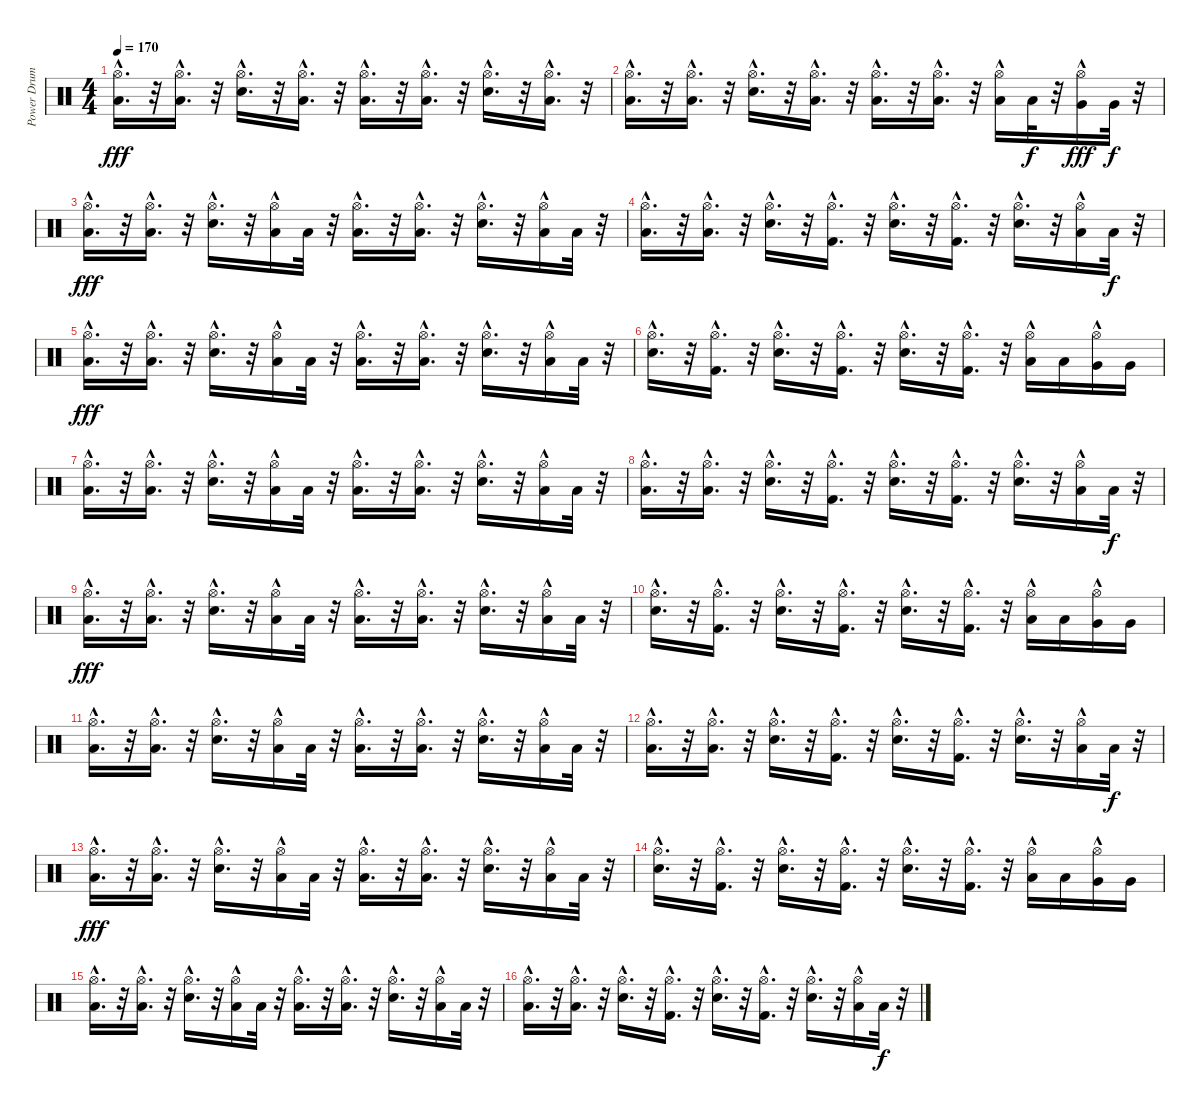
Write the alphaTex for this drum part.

\track ("Power Drums " "Power Drum") {instrument percussion}
\staff {score}
\articulation defaults
\ts (4 4)
\tempo 170
\clef neutral
\ks c
("Hi-Hat (open)"{hac} "Low Floor Tom (hit)"{hac}).16{d dy fff} r.32 ("Hi-Hat (open)"{hac} "Low Floor Tom (hit)"{hac}).16{d} r.32 ("Hi-Hat (open)"{hac} "Snare (hit) 2"{hac}).16{d} r.32 ("Hi-Hat (open)"{hac} "Low Floor Tom (hit)"{hac}).16{d} r.32 ("Hi-Hat (open)"{hac} "Low Floor Tom (hit)"{hac}).16{d} r.32 ("Hi-Hat (open)"{hac} "Low Floor Tom (hit)"{hac}).16{d} r.32 ("Hi-Hat (open)"{hac} "Snare (hit) 2"{hac}).16{d} r.32 ("Hi-Hat (open)"{hac} "Low Floor Tom (hit)"{hac}).16{d} r.32 |
("Hi-Hat (open)"{hac} "Low Floor Tom (hit)"{hac}).16{d} r.32 ("Hi-Hat (open)"{hac} "Low Floor Tom (hit)"{hac}).16{d} r.32 ("Hi-Hat (open)"{hac} "Snare (hit) 2"{hac}).16{d} r.32 ("Hi-Hat (open)"{hac} "Low Floor Tom (hit)"{hac}).16{d} r.32 ("Hi-Hat (open)"{hac} "Low Floor Tom (hit)"{hac}).16{d} r.32 ("Hi-Hat (open)"{hac} "Low Floor Tom (hit)"{hac}).16{d} r.32 ("Hi-Hat (open)"{hac} "Low Tom (hit)").16 "Low Tom (hit)".32{dy f} r.32 ("Hi-Hat (open)"{hac} "Very Low Tom (hit)").16{dy fff} "Very Low Tom (hit)".32{dy f} r.32 |
("Hi-Hat (open)"{hac} "Low Floor Tom (hit)"{hac}).16{d dy fff} r.32 ("Hi-Hat (open)"{hac} "Low Floor Tom (hit)"{hac}).16{d} r.32 ("Snare (hit) 2"{hac} "Hi-Hat (open)"{hac}).16{d} r.32 ("Hi-Hat (open)"{hac} "Low Floor Tom (hit)").16 "Low Floor Tom (hit)".32 r.32 ("Hi-Hat (open)"{hac} "Low Floor Tom (hit)"{hac}).16{d} r.32 ("Hi-Hat (open)"{hac} "Low Floor Tom (hit)"{hac}).16{d} r.32 ("Snare (hit) 2"{hac} "Hi-Hat (open)"{hac}).16{d} r.32 ("Hi-Hat (open)"{hac} "Low Floor Tom (hit)").16 "Low Floor Tom (hit)".32 r.32 |
("Hi-Hat (open)"{hac} "Low Floor Tom (hit)"{hac}).16{d} r.32 ("Hi-Hat (open)"{hac} "Low Floor Tom (hit)"{hac}).16{d} r.32 ("Snare (hit) 2"{hac} "Hi-Hat (open)"{hac}).16{d} r.32 ("Kick (hit) 2"{hac} "Hi-Hat (open)"{hac}).16{d} r.32 ("Snare (hit) 2"{hac} "Hi-Hat (open)"{hac}).16{d} r.32 ("Kick (hit) 2"{hac} "Hi-Hat (open)"{hac}).16{d} r.32 ("Snare (hit) 2"{hac} "Hi-Hat (open)"{hac}).16{d} r.32 ("Hi-Hat (open)"{hac} "Low Floor Tom (hit)").16 "Low Floor Tom (hit)".32{dy f} r.32 |
("Hi-Hat (open)"{hac} "Low Floor Tom (hit)"{hac}).16{d dy fff} r.32 ("Hi-Hat (open)"{hac} "Low Floor Tom (hit)"{hac}).16{d} r.32 ("Snare (hit) 2"{hac} "Hi-Hat (open)"{hac}).16{d} r.32 ("Hi-Hat (open)"{hac} "Low Floor Tom (hit)").16 "Low Floor Tom (hit)".32 r.32 ("Hi-Hat (open)"{hac} "Low Floor Tom (hit)"{hac}).16{d} r.32 ("Hi-Hat (open)"{hac} "Low Floor Tom (hit)"{hac}).16{d} r.32 ("Snare (hit) 2"{hac} "Hi-Hat (open)"{hac}).16{d} r.32 ("Hi-Hat (open)"{hac} "Low Floor Tom (hit)").16 "Low Floor Tom (hit)".32 r.32 |
("Snare (hit) 2"{hac} "Hi-Hat (open)"{hac}).16{d} r.32 ("Kick (hit) 2"{hac} "Hi-Hat (open)"{hac}).16{d} r.32 ("Snare (hit) 2"{hac} "Hi-Hat (open)"{hac}).16{d} r.32 ("Kick (hit) 2"{hac} "Hi-Hat (open)"{hac}).16{d} r.32 ("Snare (hit) 2"{hac} "Hi-Hat (open)"{hac}).16{d} r.32 ("Kick (hit) 2"{hac} "Hi-Hat (open)"{hac}).16{d} r.32 ("Hi-Hat (open)"{hac} "Low Tom (hit)").16 "Low Tom (hit)".16 ("Hi-Hat (open)"{hac} "Very Low Tom (hit)").16 "Very Low Tom (hit)".16 |
("Hi-Hat (open)"{hac} "Low Floor Tom (hit)"{hac}).16{d} r.32 ("Hi-Hat (open)"{hac} "Low Floor Tom (hit)"{hac}).16{d} r.32 ("Snare (hit) 2"{hac} "Hi-Hat (open)"{hac}).16{d} r.32 ("Hi-Hat (open)"{hac} "Low Floor Tom (hit)").16 "Low Floor Tom (hit)".32 r.32 ("Hi-Hat (open)"{hac} "Low Floor Tom (hit)"{hac}).16{d} r.32 ("Hi-Hat (open)"{hac} "Low Floor Tom (hit)"{hac}).16{d} r.32 ("Snare (hit) 2"{hac} "Hi-Hat (open)"{hac}).16{d} r.32 ("Hi-Hat (open)"{hac} "Low Floor Tom (hit)").16 "Low Floor Tom (hit)".32 r.32 |
("Hi-Hat (open)"{hac} "Low Floor Tom (hit)"{hac}).16{d} r.32 ("Hi-Hat (open)"{hac} "Low Floor Tom (hit)"{hac}).16{d} r.32 ("Snare (hit) 2"{hac} "Hi-Hat (open)"{hac}).16{d} r.32 ("Kick (hit) 2"{hac} "Hi-Hat (open)"{hac}).16{d} r.32 ("Snare (hit) 2"{hac} "Hi-Hat (open)"{hac}).16{d} r.32 ("Kick (hit) 2"{hac} "Hi-Hat (open)"{hac}).16{d} r.32 ("Snare (hit) 2"{hac} "Hi-Hat (open)"{hac}).16{d} r.32 ("Hi-Hat (open)"{hac} "Low Floor Tom (hit)").16 "Low Floor Tom (hit)".32{dy f} r.32 |
("Hi-Hat (open)"{hac} "Low Floor Tom (hit)"{hac}).16{d dy fff} r.32 ("Hi-Hat (open)"{hac} "Low Floor Tom (hit)"{hac}).16{d} r.32 ("Snare (hit) 2"{hac} "Hi-Hat (open)"{hac}).16{d} r.32 ("Hi-Hat (open)"{hac} "Low Floor Tom (hit)").16 "Low Floor Tom (hit)".32 r.32 ("Hi-Hat (open)"{hac} "Low Floor Tom (hit)"{hac}).16{d} r.32 ("Hi-Hat (open)"{hac} "Low Floor Tom (hit)"{hac}).16{d} r.32 ("Snare (hit) 2"{hac} "Hi-Hat (open)"{hac}).16{d} r.32 ("Hi-Hat (open)"{hac} "Low Floor Tom (hit)").16 "Low Floor Tom (hit)".32 r.32 |
("Snare (hit) 2"{hac} "Hi-Hat (open)"{hac}).16{d} r.32 ("Kick (hit) 2"{hac} "Hi-Hat (open)"{hac}).16{d} r.32 ("Snare (hit) 2"{hac} "Hi-Hat (open)"{hac}).16{d} r.32 ("Kick (hit) 2"{hac} "Hi-Hat (open)"{hac}).16{d} r.32 ("Snare (hit) 2"{hac} "Hi-Hat (open)"{hac}).16{d} r.32 ("Kick (hit) 2"{hac} "Hi-Hat (open)"{hac}).16{d} r.32 ("Hi-Hat (open)"{hac} "Low Tom (hit)").16 "Low Tom (hit)".16 ("Hi-Hat (open)"{hac} "Very Low Tom (hit)").16 "Very Low Tom (hit)".16 |
("Hi-Hat (open)"{hac} "Low Floor Tom (hit)"{hac}).16{d} r.32 ("Hi-Hat (open)"{hac} "Low Floor Tom (hit)"{hac}).16{d} r.32 ("Snare (hit) 2"{hac} "Hi-Hat (open)"{hac}).16{d} r.32 ("Hi-Hat (open)"{hac} "Low Floor Tom (hit)").16 "Low Floor Tom (hit)".32 r.32 ("Hi-Hat (open)"{hac} "Low Floor Tom (hit)"{hac}).16{d} r.32 ("Hi-Hat (open)"{hac} "Low Floor Tom (hit)"{hac}).16{d} r.32 ("Snare (hit) 2"{hac} "Hi-Hat (open)"{hac}).16{d} r.32 ("Hi-Hat (open)"{hac} "Low Floor Tom (hit)").16 "Low Floor Tom (hit)".32 r.32 |
("Hi-Hat (open)"{hac} "Low Floor Tom (hit)"{hac}).16{d} r.32 ("Hi-Hat (open)"{hac} "Low Floor Tom (hit)"{hac}).16{d} r.32 ("Snare (hit) 2"{hac} "Hi-Hat (open)"{hac}).16{d} r.32 ("Kick (hit) 2"{hac} "Hi-Hat (open)"{hac}).16{d} r.32 ("Snare (hit) 2"{hac} "Hi-Hat (open)"{hac}).16{d} r.32 ("Kick (hit) 2"{hac} "Hi-Hat (open)"{hac}).16{d} r.32 ("Snare (hit) 2"{hac} "Hi-Hat (open)"{hac}).16{d} r.32 ("Hi-Hat (open)"{hac} "Low Floor Tom (hit)").16 "Low Floor Tom (hit)".32{dy f} r.32 |
("Hi-Hat (open)"{hac} "Low Floor Tom (hit)"{hac}).16{d dy fff} r.32 ("Hi-Hat (open)"{hac} "Low Floor Tom (hit)"{hac}).16{d} r.32 ("Snare (hit) 2"{hac} "Hi-Hat (open)"{hac}).16{d} r.32 ("Hi-Hat (open)"{hac} "Low Floor Tom (hit)").16 "Low Floor Tom (hit)".32 r.32 ("Hi-Hat (open)"{hac} "Low Floor Tom (hit)"{hac}).16{d} r.32 ("Hi-Hat (open)"{hac} "Low Floor Tom (hit)"{hac}).16{d} r.32 ("Snare (hit) 2"{hac} "Hi-Hat (open)"{hac}).16{d} r.32 ("Hi-Hat (open)"{hac} "Low Floor Tom (hit)").16 "Low Floor Tom (hit)".32 r.32 |
("Snare (hit) 2"{hac} "Hi-Hat (open)"{hac}).16{d} r.32 ("Kick (hit) 2"{hac} "Hi-Hat (open)"{hac}).16{d} r.32 ("Snare (hit) 2"{hac} "Hi-Hat (open)"{hac}).16{d} r.32 ("Kick (hit) 2"{hac} "Hi-Hat (open)"{hac}).16{d} r.32 ("Snare (hit) 2"{hac} "Hi-Hat (open)"{hac}).16{d} r.32 ("Kick (hit) 2"{hac} "Hi-Hat (open)"{hac}).16{d} r.32 ("Hi-Hat (open)"{hac} "Low Tom (hit)").16 "Low Tom (hit)".16 ("Hi-Hat (open)"{hac} "Very Low Tom (hit)").16 "Very Low Tom (hit)".16 |
("Hi-Hat (open)"{hac} "Low Floor Tom (hit)"{hac}).16{d} r.32 ("Hi-Hat (open)"{hac} "Low Floor Tom (hit)"{hac}).16{d} r.32 ("Snare (hit) 2"{hac} "Hi-Hat (open)"{hac}).16{d} r.32 ("Hi-Hat (open)"{hac} "Low Floor Tom (hit)").16 "Low Floor Tom (hit)".32 r.32 ("Hi-Hat (open)"{hac} "Low Floor Tom (hit)"{hac}).16{d} r.32 ("Hi-Hat (open)"{hac} "Low Floor Tom (hit)"{hac}).16{d} r.32 ("Snare (hit) 2"{hac} "Hi-Hat (open)"{hac}).16{d} r.32 ("Hi-Hat (open)"{hac} "Low Floor Tom (hit)").16 "Low Floor Tom (hit)".32 r.32 |
("Hi-Hat (open)"{hac} "Low Floor Tom (hit)"{hac}).16{d} r.32 ("Hi-Hat (open)"{hac} "Low Floor Tom (hit)"{hac}).16{d} r.32 ("Snare (hit) 2"{hac} "Hi-Hat (open)"{hac}).16{d} r.32 ("Kick (hit) 2"{hac} "Hi-Hat (open)"{hac}).16{d} r.32 ("Snare (hit) 2"{hac} "Hi-Hat (open)"{hac}).16{d} r.32 ("Kick (hit) 2"{hac} "Hi-Hat (open)"{hac}).16{d} r.32 ("Snare (hit) 2"{hac} "Hi-Hat (open)"{hac}).16{d} r.32 ("Hi-Hat (open)"{hac} "Low Floor Tom (hit)").16 "Low Floor Tom (hit)".32{dy f} r.32
